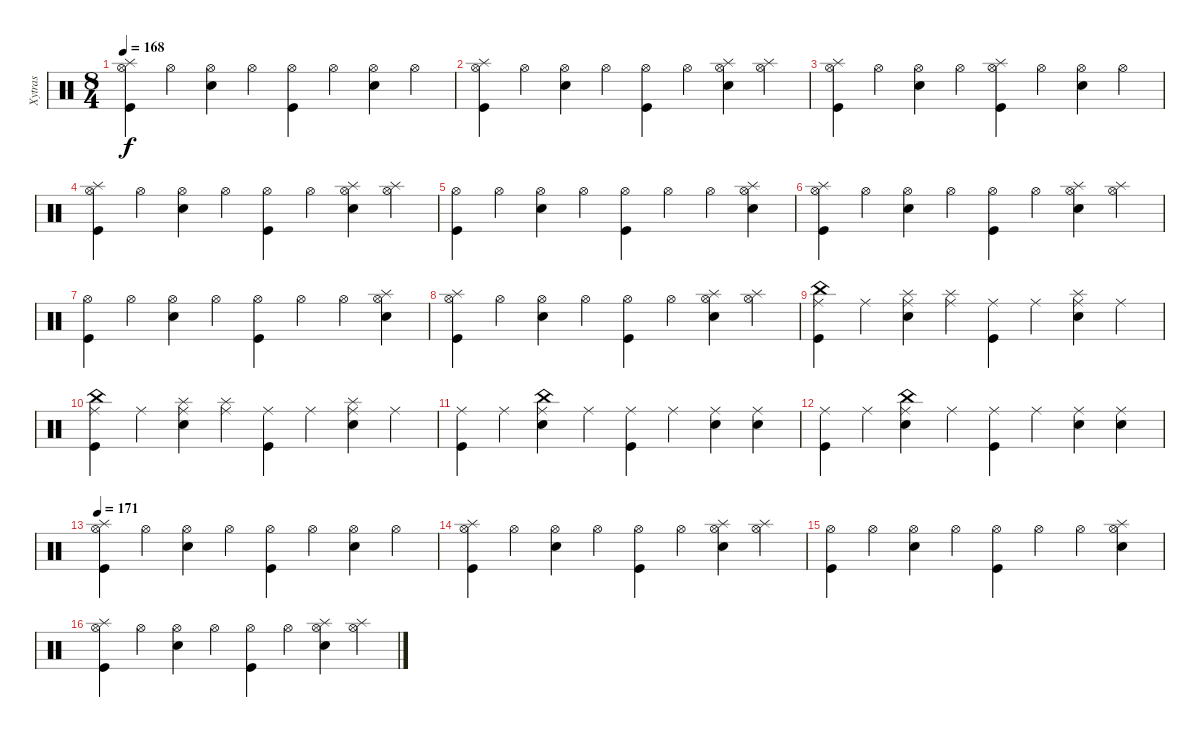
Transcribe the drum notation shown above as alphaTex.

\track ("Xytras" "Xytras") {instrument percussion}
\staff {score}
\articulation defaults
\ts (8 4)
\tempo 168
\clef neutral
\ks c
("Hi-Hat (open)" "Splash (hit)" "Kick (hit)").4{dy f} "Hi-Hat (open)".4 ("Hi-Hat (open)" "Electric Snare (hit)").4 "Hi-Hat (open)".4 ("Hi-Hat (open)" "Kick (hit)").4 "Hi-Hat (open)".4 ("Hi-Hat (open)" "Electric Snare (hit)").4 "Hi-Hat (open)".4 |
("Hi-Hat (open)" "Splash (hit)" "Kick (hit)").4 "Hi-Hat (open)".4 ("Hi-Hat (open)" "Electric Snare (hit)").4 "Hi-Hat (open)".4 ("Hi-Hat (open)" "Kick (hit)").4 "Hi-Hat (open)".4 ("Hi-Hat (open)" "Electric Snare (hit)" "Splash (hit)").4 ("Hi-Hat (open)" "Splash (hit)").4 |
("Hi-Hat (open)" "Splash (hit)" "Kick (hit)").4 "Hi-Hat (open)".4 ("Hi-Hat (open)" "Electric Snare (hit)").4 "Hi-Hat (open)".4 ("Hi-Hat (open)" "Kick (hit)" "Splash (hit)").4 "Hi-Hat (open)".4 ("Hi-Hat (open)" "Electric Snare (hit)").4 "Hi-Hat (open)".4 |
("Hi-Hat (open)" "Splash (hit)" "Kick (hit)").4 "Hi-Hat (open)".4 ("Hi-Hat (open)" "Electric Snare (hit)").4 "Hi-Hat (open)".4 ("Hi-Hat (open)" "Kick (hit)").4 "Hi-Hat (open)".4 ("Hi-Hat (open)" "Electric Snare (hit)" "Splash (hit)").4 ("Hi-Hat (open)" "Splash (hit)").4 |
("Hi-Hat (open)" "Kick (hit)").4 "Hi-Hat (open)".4 ("Hi-Hat (open)" "Electric Snare (hit)").4 "Hi-Hat (open)".4 ("Hi-Hat (open)" "Kick (hit)").4 "Hi-Hat (open)".4 "Hi-Hat (open)".4 ("Hi-Hat (open)" "Splash (hit)" "Electric Snare (hit)").4 |
("Hi-Hat (open)" "Splash (hit)" "Kick (hit)").4 "Hi-Hat (open)".4 ("Hi-Hat (open)" "Electric Snare (hit)").4 "Hi-Hat (open)".4 ("Hi-Hat (open)" "Kick (hit)").4 "Hi-Hat (open)".4 ("Hi-Hat (open)" "Electric Snare (hit)" "Splash (hit)").4 ("Hi-Hat (open)" "Splash (hit)").4 |
("Hi-Hat (open)" "Kick (hit)").4 "Hi-Hat (open)".4 ("Hi-Hat (open)" "Electric Snare (hit)").4 "Hi-Hat (open)".4 ("Hi-Hat (open)" "Kick (hit)").4 "Hi-Hat (open)".4 "Hi-Hat (open)".4 ("Hi-Hat (open)" "Splash (hit)" "Electric Snare (hit)").4 |
("Hi-Hat (open)" "Splash (hit)" "Kick (hit)").4 "Hi-Hat (open)".4 ("Hi-Hat (open)" "Electric Snare (hit)").4 "Hi-Hat (open)".4 ("Hi-Hat (open)" "Kick (hit)").4 "Hi-Hat (open)".4 ("Hi-Hat (open)" "Electric Snare (hit)" "Splash (hit)").4 ("Hi-Hat (open)" "Splash (hit)").4 |
("Ride (middle)" "Kick (hit)" "China (hit)").4 "Ride (middle)".4 ("Ride (middle)" "Electric Snare (hit)" "Splash (hit)").4 ("Ride (middle)" "Splash (hit)").4 ("Ride (middle)" "Kick (hit)").4 "Ride (middle)".4 ("Ride (middle)" "Electric Snare (hit)" "Splash (hit)").4 "Ride (middle)".4 |
("Ride (middle)" "Kick (hit)" "China (hit)").4 "Ride (middle)".4 ("Ride (middle)" "Electric Snare (hit)" "Splash (hit)").4 ("Ride (middle)" "Splash (hit)").4 ("Ride (middle)" "Kick (hit)").4 "Ride (middle)".4 ("Ride (middle)" "Electric Snare (hit)" "Splash (hit)").4 "Ride (middle)".4 |
("Ride (middle)" "Kick (hit)").4 "Ride (middle)".4 ("Ride (middle)" "Electric Snare (hit)" "China (hit)").4 "Ride (middle)".4 ("Ride (middle)" "Kick (hit)").4 "Ride (middle)".4 ("Ride (middle)" "Electric Snare (hit)").4 ("Ride (middle)" "Electric Snare (hit)").4 |
("Ride (middle)" "Kick (hit)").4 "Ride (middle)".4 ("Ride (middle)" "Electric Snare (hit)" "China (hit)").4 "Ride (middle)".4 ("Ride (middle)" "Kick (hit)").4 "Ride (middle)".4 ("Ride (middle)" "Electric Snare (hit)").4 ("Ride (middle)" "Electric Snare (hit)").4 |
\tempo 171
("Hi-Hat (open)" "Splash (hit)" "Kick (hit)").4 "Hi-Hat (open)".4 ("Hi-Hat (open)" "Electric Snare (hit)").4 "Hi-Hat (open)".4 ("Hi-Hat (open)" "Kick (hit)").4 "Hi-Hat (open)".4 ("Hi-Hat (open)" "Electric Snare (hit)").4 "Hi-Hat (open)".4 |
("Hi-Hat (open)" "Splash (hit)" "Kick (hit)").4 "Hi-Hat (open)".4 ("Hi-Hat (open)" "Electric Snare (hit)").4 "Hi-Hat (open)".4 ("Hi-Hat (open)" "Kick (hit)").4 "Hi-Hat (open)".4 ("Hi-Hat (open)" "Electric Snare (hit)" "Splash (hit)").4 ("Hi-Hat (open)" "Splash (hit)").4 |
("Hi-Hat (open)" "Kick (hit)").4 "Hi-Hat (open)".4 ("Hi-Hat (open)" "Electric Snare (hit)").4 "Hi-Hat (open)".4 ("Hi-Hat (open)" "Kick (hit)").4 "Hi-Hat (open)".4 "Hi-Hat (open)".4 ("Hi-Hat (open)" "Splash (hit)" "Electric Snare (hit)").4 |
("Hi-Hat (open)" "Splash (hit)" "Kick (hit)").4 "Hi-Hat (open)".4 ("Hi-Hat (open)" "Electric Snare (hit)").4 "Hi-Hat (open)".4 ("Hi-Hat (open)" "Kick (hit)").4 "Hi-Hat (open)".4 ("Hi-Hat (open)" "Electric Snare (hit)" "Splash (hit)").4 ("Hi-Hat (open)" "Splash (hit)").4
